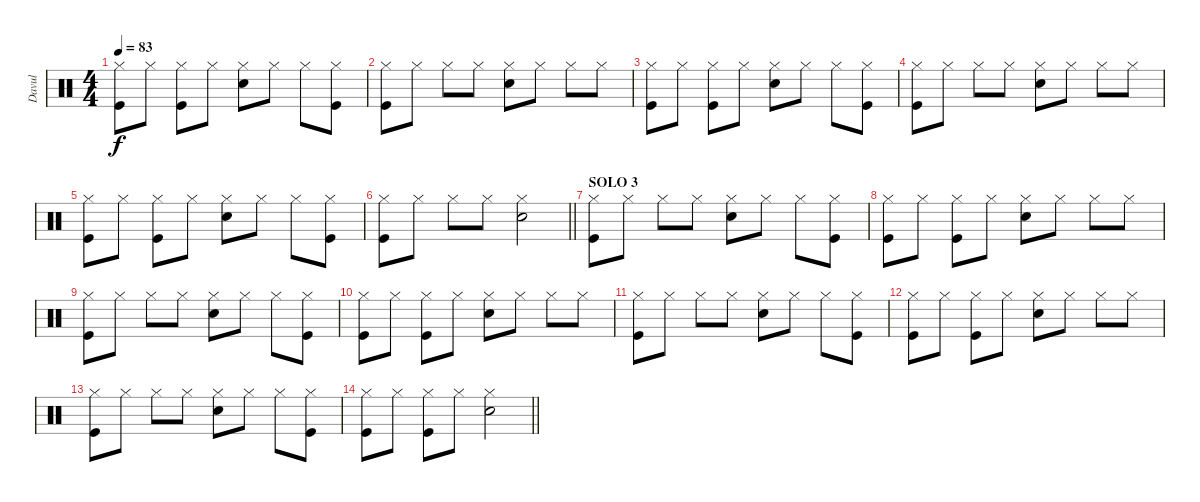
\track ("Davul" "Davul") {instrument percussion}
\staff {score}
\articulation defaults
\ts (4 4)
\tempo 83
\clef neutral
\ks c
("Hi-Hat (closed)" "Kick (hit)").8{dy f} "Hi-Hat (closed)".8 ("Hi-Hat (closed)" "Kick (hit)").8 "Hi-Hat (closed)".8 ("Hi-Hat (closed)" "Electric Snare (hit)").8 "Hi-Hat (closed)".8 "Hi-Hat (closed)".8 ("Hi-Hat (closed)" "Kick (hit)").8 |
("Hi-Hat (closed)" "Kick (hit)").8 "Hi-Hat (closed)".8 "Hi-Hat (closed)".8 "Hi-Hat (closed)".8 ("Hi-Hat (closed)" "Electric Snare (hit)").8 "Hi-Hat (closed)".8 "Hi-Hat (closed)".8 "Hi-Hat (closed)".8 |
("Hi-Hat (closed)" "Kick (hit)").8 "Hi-Hat (closed)".8 ("Hi-Hat (closed)" "Kick (hit)").8 "Hi-Hat (closed)".8 ("Hi-Hat (closed)" "Electric Snare (hit)").8 "Hi-Hat (closed)".8 "Hi-Hat (closed)".8 ("Hi-Hat (closed)" "Kick (hit)").8 |
("Hi-Hat (closed)" "Kick (hit)").8 "Hi-Hat (closed)".8 "Hi-Hat (closed)".8 "Hi-Hat (closed)".8 ("Hi-Hat (closed)" "Electric Snare (hit)").8 "Hi-Hat (closed)".8 "Hi-Hat (closed)".8 "Hi-Hat (closed)".8 |
("Hi-Hat (closed)" "Kick (hit)").8 "Hi-Hat (closed)".8 ("Hi-Hat (closed)" "Kick (hit)").8 "Hi-Hat (closed)".8 ("Hi-Hat (closed)" "Electric Snare (hit)").8 "Hi-Hat (closed)".8 "Hi-Hat (closed)".8 ("Hi-Hat (closed)" "Kick (hit)").8 |
\barLineRight lightlight
("Hi-Hat (closed)" "Kick (hit)").8 "Hi-Hat (closed)".8 "Hi-Hat (closed)".8 "Hi-Hat (closed)".8 ("Hi-Hat (closed)" "Electric Snare (hit)").2 |
\section ("" "SOLO 3")
("Hi-Hat (closed)" "Kick (hit)").8 "Hi-Hat (closed)".8 "Hi-Hat (closed)".8 "Hi-Hat (closed)".8 ("Hi-Hat (closed)" "Electric Snare (hit)").8 "Hi-Hat (closed)".8 "Hi-Hat (closed)".8 ("Hi-Hat (closed)" "Kick (hit)").8 |
("Hi-Hat (closed)" "Kick (hit)").8 "Hi-Hat (closed)".8 ("Hi-Hat (closed)" "Kick (hit)").8 "Hi-Hat (closed)".8 ("Hi-Hat (closed)" "Electric Snare (hit)").8 "Hi-Hat (closed)".8 "Hi-Hat (closed)".8 "Hi-Hat (closed)".8 |
("Hi-Hat (closed)" "Kick (hit)").8 "Hi-Hat (closed)".8 "Hi-Hat (closed)".8 "Hi-Hat (closed)".8 ("Hi-Hat (closed)" "Electric Snare (hit)").8 "Hi-Hat (closed)".8 "Hi-Hat (closed)".8 ("Hi-Hat (closed)" "Kick (hit)").8 |
("Hi-Hat (closed)" "Kick (hit)").8 "Hi-Hat (closed)".8 ("Hi-Hat (closed)" "Kick (hit)").8 "Hi-Hat (closed)".8 ("Hi-Hat (closed)" "Electric Snare (hit)").8 "Hi-Hat (closed)".8 "Hi-Hat (closed)".8 "Hi-Hat (closed)".8 |
("Hi-Hat (closed)" "Kick (hit)").8 "Hi-Hat (closed)".8 "Hi-Hat (closed)".8 "Hi-Hat (closed)".8 ("Hi-Hat (closed)" "Electric Snare (hit)").8 "Hi-Hat (closed)".8 "Hi-Hat (closed)".8 ("Hi-Hat (closed)" "Kick (hit)").8 |
("Hi-Hat (closed)" "Kick (hit)").8 "Hi-Hat (closed)".8 ("Hi-Hat (closed)" "Kick (hit)").8 "Hi-Hat (closed)".8 ("Hi-Hat (closed)" "Electric Snare (hit)").8 "Hi-Hat (closed)".8 "Hi-Hat (closed)".8 "Hi-Hat (closed)".8 |
("Hi-Hat (closed)" "Kick (hit)").8 "Hi-Hat (closed)".8 "Hi-Hat (closed)".8 "Hi-Hat (closed)".8 ("Hi-Hat (closed)" "Electric Snare (hit)").8 "Hi-Hat (closed)".8 "Hi-Hat (closed)".8 ("Hi-Hat (closed)" "Kick (hit)").8 |
\barLineRight lightlight
("Hi-Hat (closed)" "Kick (hit)").8 "Hi-Hat (closed)".8 ("Hi-Hat (closed)" "Kick (hit)").8 "Hi-Hat (closed)".8 ("Hi-Hat (closed)" "Electric Snare (hit)").2
